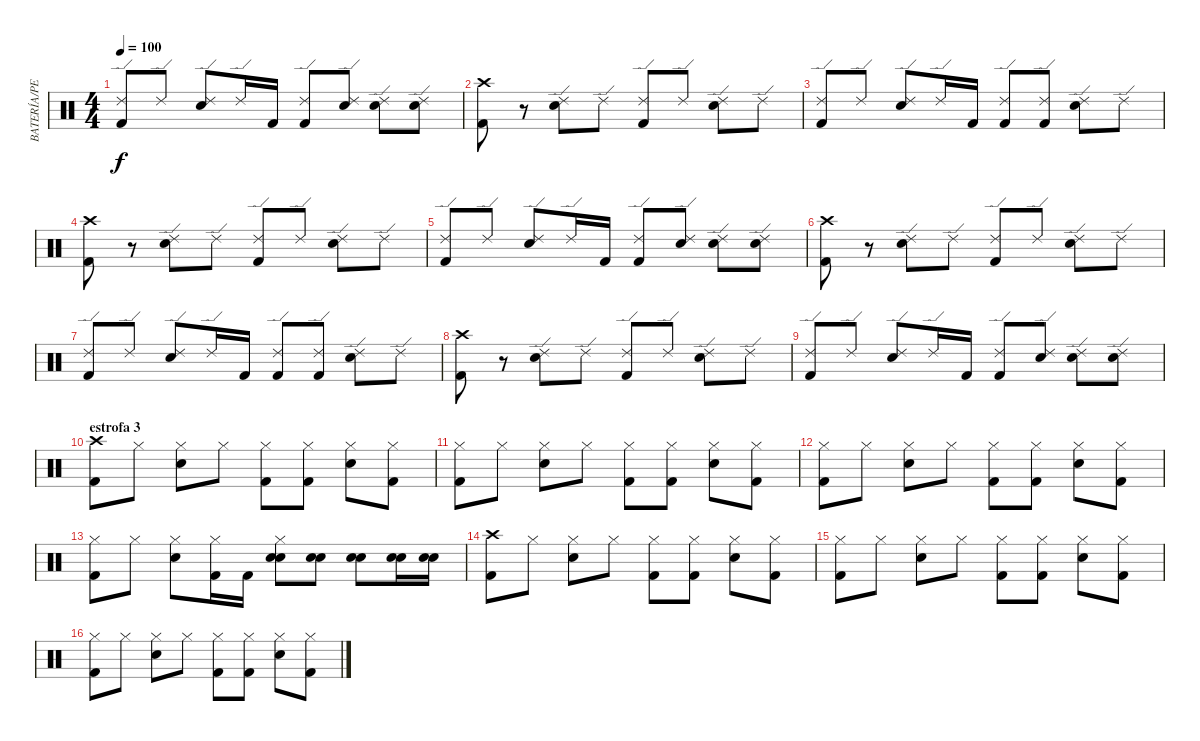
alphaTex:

\track ("BATERÍA/PERCUSIÓN" "BATERÍA/PE") {instrument percussion}
\staff {score}
\articulation defaults
\ts (4 4)
\tempo 100
\clef neutral
\ks c
("Ride (edge) 2" "Kick (hit) 2").8{dy f} "Ride (edge) 2".8 ("Ride (edge) 2" "Electric Snare (hit)").8 "Ride (edge) 2".16 "Kick (hit) 2".16 ("Ride (edge) 2" "Kick (hit) 2").8 ("Ride (edge) 2" "Electric Snare (hit)").8 ("Ride (edge) 2" "Electric Snare (hit)").8 ("Ride (edge) 2" "Electric Snare (hit)").8 |
("Crash high (hit)" "Kick (hit) 2").8 r.8 ("Ride (edge) 2" "Electric Snare (hit)").8 "Ride (edge) 2".8 ("Ride (edge) 2" "Kick (hit) 2").8 "Ride (edge) 2".8 ("Ride (edge) 2" "Electric Snare (hit)").8 "Ride (edge) 2".8 |
("Ride (edge) 2" "Kick (hit) 2").8 "Ride (edge) 2".8 ("Ride (edge) 2" "Electric Snare (hit)").8 "Ride (edge) 2".16 "Kick (hit) 2".16 ("Ride (edge) 2" "Kick (hit) 2").8 ("Ride (edge) 2" "Kick (hit) 2").8 ("Ride (edge) 2" "Electric Snare (hit)").8 "Ride (edge) 2".8 |
("Crash high (hit)" "Kick (hit) 2").8 r.8 ("Ride (edge) 2" "Electric Snare (hit)").8 "Ride (edge) 2".8 ("Ride (edge) 2" "Kick (hit) 2").8 "Ride (edge) 2".8 ("Ride (edge) 2" "Electric Snare (hit)").8 "Ride (edge) 2".8 |
("Ride (edge) 2" "Kick (hit) 2").8 "Ride (edge) 2".8 ("Ride (edge) 2" "Electric Snare (hit)").8 "Ride (edge) 2".16 "Kick (hit) 2".16 ("Ride (edge) 2" "Kick (hit) 2").8 ("Ride (edge) 2" "Electric Snare (hit)").8 ("Ride (edge) 2" "Electric Snare (hit)").8 ("Ride (edge) 2" "Electric Snare (hit)").8 |
("Crash high (hit)" "Kick (hit) 2").8 r.8 ("Ride (edge) 2" "Electric Snare (hit)").8 "Ride (edge) 2".8 ("Ride (edge) 2" "Kick (hit) 2").8 "Ride (edge) 2".8 ("Ride (edge) 2" "Electric Snare (hit)").8 "Ride (edge) 2".8 |
("Ride (edge) 2" "Kick (hit) 2").8 "Ride (edge) 2".8 ("Ride (edge) 2" "Electric Snare (hit)").8 "Ride (edge) 2".16 "Kick (hit) 2".16 ("Ride (edge) 2" "Kick (hit) 2").8 ("Ride (edge) 2" "Kick (hit) 2").8 ("Ride (edge) 2" "Electric Snare (hit)").8 "Ride (edge) 2".8 |
("Crash high (hit)" "Kick (hit) 2").8 r.8 ("Ride (edge) 2" "Electric Snare (hit)").8 "Ride (edge) 2".8 ("Ride (edge) 2" "Kick (hit) 2").8 "Ride (edge) 2".8 ("Ride (edge) 2" "Electric Snare (hit)").8 "Ride (edge) 2".8 |
("Ride (edge) 2" "Kick (hit) 2").8 "Ride (edge) 2".8 ("Ride (edge) 2" "Electric Snare (hit)").8 "Ride (edge) 2".16 "Kick (hit) 2".16 ("Ride (edge) 2" "Kick (hit) 2").8 ("Ride (edge) 2" "Electric Snare (hit)").8 ("Ride (edge) 2" "Electric Snare (hit)").8 ("Ride (edge) 2" "Electric Snare (hit)").8 |
\section ("" "estrofa 3")
("Crash high (hit)" "Kick (hit) 2").8{volume 16} "Hi-Hat (closed)".8 ("Hi-Hat (closed)" "Hand Clap (hit)").8 "Hi-Hat (closed)".8 ("Hi-Hat (closed)" "Kick (hit) 2").8 ("Kick (hit) 2" "Hi-Hat (closed)").8 ("Hi-Hat (closed)" "Hand Clap (hit)").8 ("Kick (hit) 2" "Hi-Hat (closed)").8 |
("Hi-Hat (closed)" "Kick (hit) 2").8 "Hi-Hat (closed)".8 ("Hi-Hat (closed)" "Hand Clap (hit)").8 "Hi-Hat (closed)".8 ("Hi-Hat (closed)" "Kick (hit) 2").8 ("Kick (hit) 2" "Hi-Hat (closed)").8 ("Hi-Hat (closed)" "Hand Clap (hit)").8 ("Kick (hit) 2" "Hi-Hat (closed)").8 |
("Hi-Hat (closed)" "Kick (hit) 2").8 "Hi-Hat (closed)".8 ("Hi-Hat (closed)" "Hand Clap (hit)").8 "Hi-Hat (closed)".8 ("Hi-Hat (closed)" "Kick (hit) 2").8 ("Kick (hit) 2" "Hi-Hat (closed)").8 ("Hi-Hat (closed)" "Hand Clap (hit)").8 ("Kick (hit) 2" "Hi-Hat (closed)").8 |
("Hi-Hat (closed)" "Kick (hit) 2").8 "Hi-Hat (closed)".8 ("Hi-Hat (closed)" "Hand Clap (hit)").8 ("Hi-Hat (closed)" "Kick (hit) 2").16 "Kick (hit) 2".16 ("Hi-Hat (closed)" "Hand Clap (hit)" "Snare (hit) 2").8 ("Snare (hit) 2" "Hand Clap (hit)").8 ("Snare (hit) 2" "Hand Clap (hit)").8 ("Snare (hit) 2" "Hand Clap (hit)").16 ("Snare (hit) 2" "Hand Clap (hit)").16 |
("Crash high (hit)" "Kick (hit) 2").8{volume 16} "Hi-Hat (closed)".8 ("Hi-Hat (closed)" "Hand Clap (hit)").8 "Hi-Hat (closed)".8 ("Hi-Hat (closed)" "Kick (hit) 2").8 ("Kick (hit) 2" "Hi-Hat (closed)").8 ("Hi-Hat (closed)" "Hand Clap (hit)").8 ("Kick (hit) 2" "Hi-Hat (closed)").8 |
("Hi-Hat (closed)" "Kick (hit) 2").8 "Hi-Hat (closed)".8 ("Hi-Hat (closed)" "Hand Clap (hit)").8 "Hi-Hat (closed)".8 ("Hi-Hat (closed)" "Kick (hit) 2").8 ("Kick (hit) 2" "Hi-Hat (closed)").8 ("Hi-Hat (closed)" "Hand Clap (hit)").8 ("Kick (hit) 2" "Hi-Hat (closed)").8 |
("Hi-Hat (closed)" "Kick (hit) 2").8 "Hi-Hat (closed)".8 ("Hi-Hat (closed)" "Hand Clap (hit)").8 "Hi-Hat (closed)".8 ("Hi-Hat (closed)" "Kick (hit) 2").8 ("Kick (hit) 2" "Hi-Hat (closed)").8 ("Hi-Hat (closed)" "Hand Clap (hit)").8 ("Kick (hit) 2" "Hi-Hat (closed)").8
